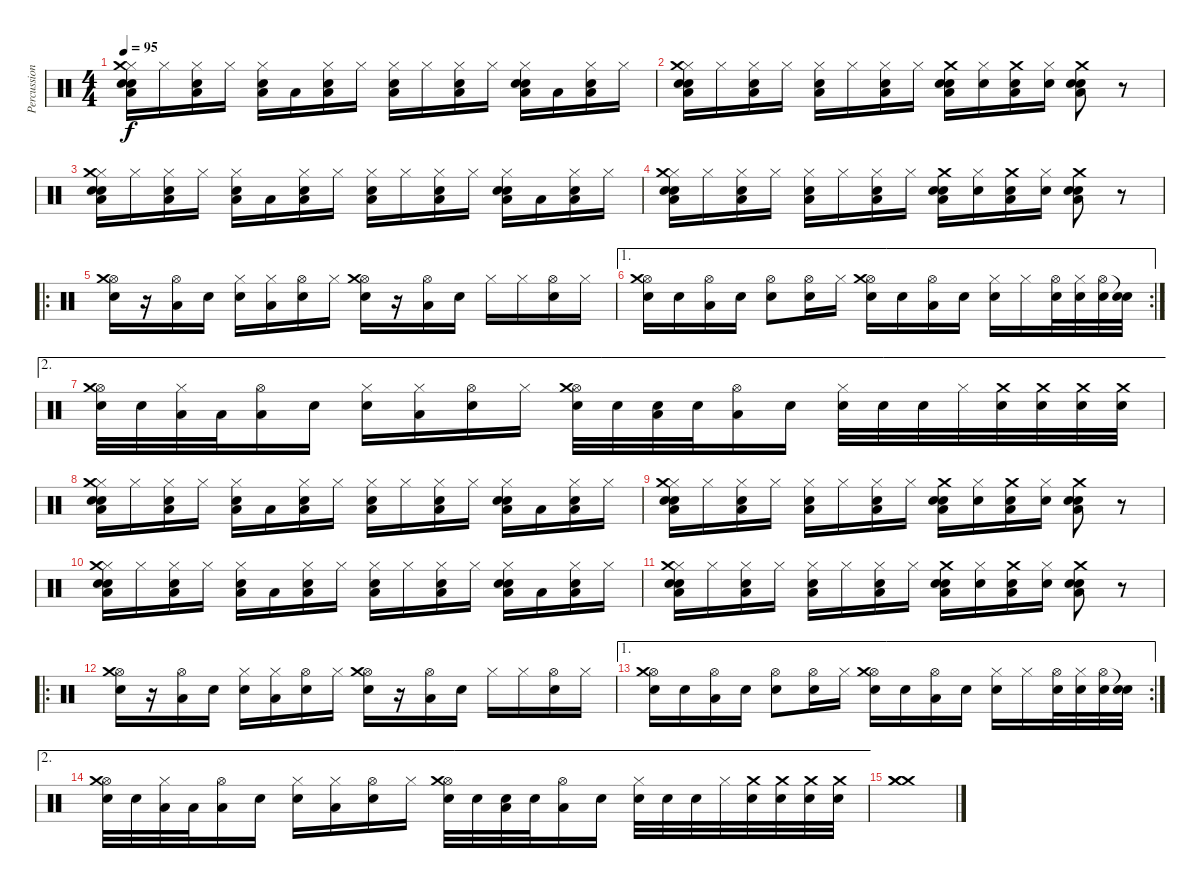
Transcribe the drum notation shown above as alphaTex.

\track ("Percussions" "Percussion") {instrument percussion}
\staff {score}
\articulation defaults
\ts (4 4)
\tempo 95
\clef neutral
\ks c
("Hi-Hat (closed)" "Electric Snare (hit)" "Crash medium (hit)" "Snare (hit) 2" "Low Tom (hit)").16{dy f} "Hi-Hat (closed)".16 ("Hi-Hat (closed)" "Electric Snare (hit)" "Low Tom (hit)").16 "Hi-Hat (closed)".16 ("Hi-Hat (closed)" "Snare (hit) 2" "Low Tom (hit)").16 "Low Tom (hit)".16 ("Hi-Hat (closed)" "Electric Snare (hit)" "Low Tom (hit)").16 "Hi-Hat (closed)".16 ("Hi-Hat (closed)" "Snare (hit) 2" "Low Tom (hit)").16 "Hi-Hat (closed)".16 ("Hi-Hat (closed)" "Electric Snare (hit)" "Low Tom (hit)").16 "Hi-Hat (closed)".16 ("Hi-Hat (closed)" "Electric Snare (hit)" "Snare (hit) 2" "Low Tom (hit)").16 "Low Tom (hit)".16 ("Hi-Hat (closed)" "Electric Snare (hit)" "Low Tom (hit)").16 "Hi-Hat (closed)".16 |
("Hi-Hat (closed)" "Electric Snare (hit)" "Crash medium (hit)" "Snare (hit) 2" "Low Tom (hit)").16 "Hi-Hat (closed)".16 ("Hi-Hat (closed)" "Electric Snare (hit)" "Low Tom (hit)").16 "Hi-Hat (closed)".16 ("Hi-Hat (closed)" "Snare (hit) 2" "Low Tom (hit)").16 "Hi-Hat (closed)".16 ("Hi-Hat (closed)" "Electric Snare (hit)" "Low Tom (hit)").16 "Hi-Hat (closed)".16 ("Crash medium (hit)" "Electric Snare (hit)" "Snare (hit) 2" "Low Tom (hit)").16 ("Hi-Hat (closed)" "Electric Snare (hit)").16 ("Crash medium (hit)" "Electric Snare (hit)" "Low Tom (hit)").16 ("Hi-Hat (closed)" "Electric Snare (hit)").16 ("Crash medium (hit)" "Electric Snare (hit)" "Snare (hit) 2" "Low Tom (hit)").8 r.8 |
("Hi-Hat (closed)" "Electric Snare (hit)" "Crash medium (hit)" "Snare (hit) 2" "Low Tom (hit)").16 "Hi-Hat (closed)".16 ("Hi-Hat (closed)" "Electric Snare (hit)" "Low Tom (hit)").16 "Hi-Hat (closed)".16 ("Hi-Hat (closed)" "Snare (hit) 2" "Low Tom (hit)").16 "Low Tom (hit)".16 ("Hi-Hat (closed)" "Electric Snare (hit)" "Low Tom (hit)").16 "Hi-Hat (closed)".16 ("Hi-Hat (closed)" "Snare (hit) 2" "Low Tom (hit)").16 "Hi-Hat (closed)".16 ("Hi-Hat (closed)" "Electric Snare (hit)" "Low Tom (hit)").16 "Hi-Hat (closed)".16 ("Hi-Hat (closed)" "Electric Snare (hit)" "Snare (hit) 2" "Low Tom (hit)").16 "Low Tom (hit)".16 ("Hi-Hat (closed)" "Electric Snare (hit)" "Low Tom (hit)").16 "Hi-Hat (closed)".16 |
("Hi-Hat (closed)" "Electric Snare (hit)" "Crash medium (hit)" "Snare (hit) 2" "Low Tom (hit)").16 "Hi-Hat (closed)".16 ("Hi-Hat (closed)" "Electric Snare (hit)" "Low Tom (hit)").16 "Hi-Hat (closed)".16 ("Hi-Hat (closed)" "Snare (hit) 2" "Low Tom (hit)").16 "Hi-Hat (closed)".16 ("Hi-Hat (closed)" "Electric Snare (hit)" "Low Tom (hit)").16 "Hi-Hat (closed)".16 ("Crash medium (hit)" "Electric Snare (hit)" "Snare (hit) 2" "Low Tom (hit)").16 ("Hi-Hat (closed)" "Electric Snare (hit)").16 ("Crash medium (hit)" "Electric Snare (hit)" "Low Tom (hit)").16 ("Hi-Hat (closed)" "Electric Snare (hit)").16 ("Crash medium (hit)" "Electric Snare (hit)" "Snare (hit) 2" "Low Tom (hit)").8 r.8 |
\ro
("Hi-Hat (open)" "Electric Snare (hit)" "Crash medium (hit)").16 r.16 ("Hi-Hat (open)" "Low Tom (hit)").16 "Electric Snare (hit)".16 ("Hi-Hat (closed)" "Electric Snare (hit)").16 ("Hi-Hat (closed)" "Low Tom (hit)").16 ("Hi-Hat (open)" "Electric Snare (hit)").16 "Hi-Hat (closed)".16 ("Hi-Hat (open)" "Electric Snare (hit)" "Crash medium (hit)").16 r.16 ("Hi-Hat (open)" "Low Tom (hit)").16 "Electric Snare (hit)".16 "Hi-Hat (closed)".16 "Hi-Hat (closed)".16 ("Hi-Hat (open)" "Electric Snare (hit)").16 "Hi-Hat (closed)".16 |
\ae 1
\rc 2
("Hi-Hat (open)" "Electric Snare (hit)" "Crash medium (hit)").16 "Electric Snare (hit)".16 ("Hi-Hat (open)" "Low Tom (hit)").16 "Electric Snare (hit)".16 ("Hi-Hat (open)" "Electric Snare (hit)").8 ("Hi-Hat (open)" "Electric Snare (hit)").16 "Hi-Hat (closed)".16 ("Hi-Hat (open)" "Electric Snare (hit)" "Crash medium (hit)").16 "Electric Snare (hit)".16 ("Hi-Hat (open)" "Low Tom (hit)").16 "Electric Snare (hit)".16 ("Hi-Hat (closed)" "Electric Snare (hit)").16 "Hi-Hat (closed)".16 ("Hi-Hat (open)" "Electric Snare (hit)").32 ("Hi-Hat (closed)" "Electric Snare (hit)").32 ("Hi-Hat (open)" "Electric Snare (hit)").32 ("Snare (hit)"{t} "Electric Snare (hit)").32 |
\ae 2
("Hi-Hat (open)" "Electric Snare (hit)" "Crash medium (hit)").32 "Electric Snare (hit)".32 ("Hi-Hat (closed)" "Low Tom (hit)").32 "Low Tom (hit)".32 ("Hi-Hat (open)" "Low Tom (hit)").16 "Electric Snare (hit)".16 ("Hi-Hat (closed)" "Electric Snare (hit)").16 ("Hi-Hat (closed)" "Low Tom (hit)").16 ("Hi-Hat (open)" "Electric Snare (hit)").16 "Hi-Hat (closed)".16 ("Hi-Hat (open)" "Electric Snare (hit)" "Crash medium (hit)").32 "Electric Snare (hit)".32 ("Electric Snare (hit)" "Low Tom (hit)").32 "Electric Snare (hit)".32 ("Hi-Hat (open)" "Low Tom (hit)").16 "Electric Snare (hit)".16 ("Hi-Hat (closed)" "Electric Snare (hit)").32 "Electric Snare (hit)".32 "Electric Snare (hit)".32 "Hi-Hat (closed)".32 ("Crash medium (hit)" "Electric Snare (hit)").32 ("Crash medium (hit)" "Electric Snare (hit)").32 ("Crash medium (hit)" "Electric Snare (hit)").32 ("Crash medium (hit)" "Electric Snare (hit)").32 |
("Hi-Hat (closed)" "Electric Snare (hit)" "Crash medium (hit)" "Snare (hit) 2" "Low Tom (hit)").16 "Hi-Hat (closed)".16 ("Hi-Hat (closed)" "Electric Snare (hit)" "Low Tom (hit)").16 "Hi-Hat (closed)".16 ("Hi-Hat (closed)" "Snare (hit) 2" "Low Tom (hit)").16 "Low Tom (hit)".16 ("Hi-Hat (closed)" "Electric Snare (hit)" "Low Tom (hit)").16 "Hi-Hat (closed)".16 ("Hi-Hat (closed)" "Snare (hit) 2" "Low Tom (hit)").16 "Hi-Hat (closed)".16 ("Hi-Hat (closed)" "Electric Snare (hit)" "Low Tom (hit)").16 "Hi-Hat (closed)".16 ("Hi-Hat (closed)" "Electric Snare (hit)" "Snare (hit) 2" "Low Tom (hit)").16 "Low Tom (hit)".16 ("Hi-Hat (closed)" "Electric Snare (hit)" "Low Tom (hit)").16 "Hi-Hat (closed)".16 |
("Hi-Hat (closed)" "Electric Snare (hit)" "Crash medium (hit)" "Snare (hit) 2" "Low Tom (hit)").16 "Hi-Hat (closed)".16 ("Hi-Hat (closed)" "Electric Snare (hit)" "Low Tom (hit)").16 "Hi-Hat (closed)".16 ("Hi-Hat (closed)" "Snare (hit) 2" "Low Tom (hit)").16 "Hi-Hat (closed)".16 ("Hi-Hat (closed)" "Electric Snare (hit)" "Low Tom (hit)").16 "Hi-Hat (closed)".16 ("Crash medium (hit)" "Electric Snare (hit)" "Snare (hit) 2" "Low Tom (hit)").16 ("Hi-Hat (closed)" "Electric Snare (hit)").16 ("Crash medium (hit)" "Electric Snare (hit)" "Low Tom (hit)").16 ("Hi-Hat (closed)" "Electric Snare (hit)").16 ("Crash medium (hit)" "Electric Snare (hit)" "Snare (hit) 2" "Low Tom (hit)").8 r.8 |
("Hi-Hat (closed)" "Electric Snare (hit)" "Crash medium (hit)" "Snare (hit) 2" "Low Tom (hit)").16 "Hi-Hat (closed)".16 ("Hi-Hat (closed)" "Electric Snare (hit)" "Low Tom (hit)").16 "Hi-Hat (closed)".16 ("Hi-Hat (closed)" "Snare (hit) 2" "Low Tom (hit)").16 "Low Tom (hit)".16 ("Hi-Hat (closed)" "Electric Snare (hit)" "Low Tom (hit)").16 "Hi-Hat (closed)".16 ("Hi-Hat (closed)" "Snare (hit) 2" "Low Tom (hit)").16 "Hi-Hat (closed)".16 ("Hi-Hat (closed)" "Electric Snare (hit)" "Low Tom (hit)").16 "Hi-Hat (closed)".16 ("Hi-Hat (closed)" "Electric Snare (hit)" "Snare (hit) 2" "Low Tom (hit)").16 "Low Tom (hit)".16 ("Hi-Hat (closed)" "Electric Snare (hit)" "Low Tom (hit)").16 "Hi-Hat (closed)".16 |
("Hi-Hat (closed)" "Electric Snare (hit)" "Crash medium (hit)" "Snare (hit) 2" "Low Tom (hit)").16 "Hi-Hat (closed)".16 ("Hi-Hat (closed)" "Electric Snare (hit)" "Low Tom (hit)").16 "Hi-Hat (closed)".16 ("Hi-Hat (closed)" "Snare (hit) 2" "Low Tom (hit)").16 "Hi-Hat (closed)".16 ("Hi-Hat (closed)" "Electric Snare (hit)" "Low Tom (hit)").16 "Hi-Hat (closed)".16 ("Crash medium (hit)" "Electric Snare (hit)" "Snare (hit) 2" "Low Tom (hit)").16 ("Hi-Hat (closed)" "Electric Snare (hit)").16 ("Crash medium (hit)" "Electric Snare (hit)" "Low Tom (hit)").16 ("Hi-Hat (closed)" "Electric Snare (hit)").16 ("Crash medium (hit)" "Electric Snare (hit)" "Snare (hit) 2" "Low Tom (hit)").8 r.8 |
\ro
("Hi-Hat (open)" "Electric Snare (hit)" "Crash medium (hit)").16 r.16 ("Hi-Hat (open)" "Low Tom (hit)").16 "Electric Snare (hit)".16 ("Hi-Hat (closed)" "Electric Snare (hit)").16 ("Hi-Hat (closed)" "Low Tom (hit)").16 ("Hi-Hat (open)" "Electric Snare (hit)").16 "Hi-Hat (closed)".16 ("Hi-Hat (open)" "Electric Snare (hit)" "Crash medium (hit)").16 r.16 ("Hi-Hat (open)" "Low Tom (hit)").16 "Electric Snare (hit)".16 "Hi-Hat (closed)".16 "Hi-Hat (closed)".16 ("Hi-Hat (open)" "Electric Snare (hit)").16 "Hi-Hat (closed)".16 |
\ae 1
\rc 2
("Hi-Hat (open)" "Electric Snare (hit)" "Crash medium (hit)").16 "Electric Snare (hit)".16 ("Hi-Hat (open)" "Low Tom (hit)").16 "Electric Snare (hit)".16 ("Hi-Hat (open)" "Electric Snare (hit)").8 ("Hi-Hat (open)" "Electric Snare (hit)").16 "Hi-Hat (closed)".16 ("Hi-Hat (open)" "Electric Snare (hit)" "Crash medium (hit)").16 "Electric Snare (hit)".16 ("Hi-Hat (open)" "Low Tom (hit)").16 "Electric Snare (hit)".16 ("Hi-Hat (closed)" "Electric Snare (hit)").16 "Hi-Hat (closed)".16 ("Hi-Hat (open)" "Electric Snare (hit)").32 ("Hi-Hat (closed)" "Electric Snare (hit)").32 ("Hi-Hat (open)" "Electric Snare (hit)").32 ("Snare (hit)"{t} "Electric Snare (hit)").32 |
\ae 2
("Hi-Hat (open)" "Electric Snare (hit)" "Crash medium (hit)").32 "Electric Snare (hit)".32 ("Hi-Hat (closed)" "Low Tom (hit)").32 "Low Tom (hit)".32 ("Hi-Hat (open)" "Low Tom (hit)").16 "Electric Snare (hit)".16 ("Hi-Hat (closed)" "Electric Snare (hit)").16 ("Hi-Hat (closed)" "Low Tom (hit)").16 ("Hi-Hat (open)" "Electric Snare (hit)").16 "Hi-Hat (closed)".16 ("Hi-Hat (open)" "Electric Snare (hit)" "Crash medium (hit)").32 "Electric Snare (hit)".32 ("Electric Snare (hit)" "Low Tom (hit)").32 "Electric Snare (hit)".32 ("Hi-Hat (open)" "Low Tom (hit)").16 "Electric Snare (hit)".16 ("Hi-Hat (closed)" "Electric Snare (hit)").32 "Electric Snare (hit)".32 "Electric Snare (hit)".32 "Hi-Hat (closed)".32 ("Crash medium (hit)" "Electric Snare (hit)").32 ("Crash medium (hit)" "Electric Snare (hit)").32 ("Crash medium (hit)" "Electric Snare (hit)").32 ("Crash medium (hit)" "Electric Snare (hit)").32 |
("Crash medium (hit)" "Crash medium (hit)" "Crash medium (hit)").1
